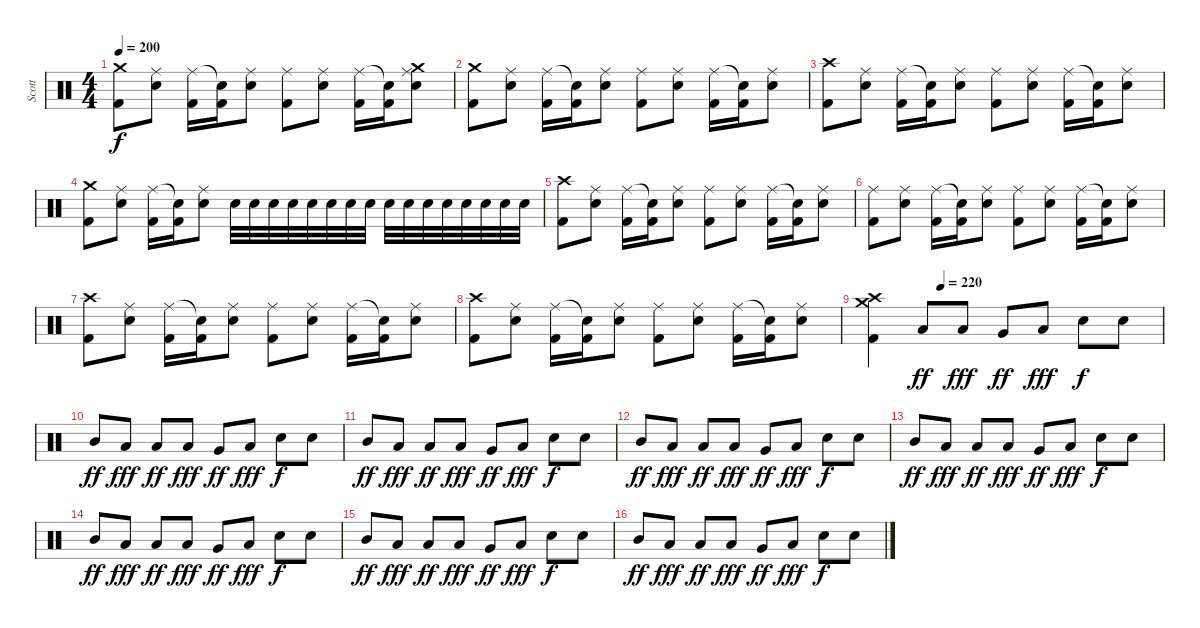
\track ("Scott" "Scott") {instrument percussion}
\staff {score}
\articulation defaults
\ts (4 4)
\tempo 200
\clef neutral
\ks c
("Crash medium (hit)" "Kick (hit) 2").8{dy f} ("Ride (middle)" "Snare (hit) 2").8 ("Ride (middle)" "Kick (hit) 2").16 ("Snare (hit)"{t} "Kick (hit) 2").16 ("Ride (middle)" "Snare (hit) 2").8 ("Ride (middle)" "Kick (hit) 2").8 ("Ride (middle)" "Snare (hit) 2").8 ("Ride (middle)" "Kick (hit) 2").16 ("Snare (hit)"{t} "Kick (hit) 2").16 ("Crash medium (hit)" "Ride (middle)" "Snare (hit) 2").8 |
("Crash medium (hit)" "Kick (hit) 2").8 ("Ride (middle)" "Snare (hit) 2").8 ("Ride (middle)" "Kick (hit) 2").16 ("Snare (hit)"{t} "Kick (hit) 2").16 ("Ride (middle)" "Snare (hit) 2").8 ("Ride (middle)" "Kick (hit) 2").8 ("Ride (middle)" "Snare (hit) 2").8 ("Ride (middle)" "Kick (hit) 2").16 ("Snare (hit)"{t} "Kick (hit) 2").16 ("Ride (middle)" "Snare (hit) 2").8 |
("Crash high (hit)" "Kick (hit) 2").8 ("Ride (middle)" "Snare (hit) 2").8 ("Ride (middle)" "Kick (hit) 2").16 ("Snare (hit)"{t} "Kick (hit) 2").16 ("Ride (middle)" "Snare (hit) 2").8 ("Ride (middle)" "Kick (hit) 2").8 ("Ride (middle)" "Snare (hit) 2").8 ("Ride (middle)" "Kick (hit) 2").16 ("Snare (hit)"{t} "Kick (hit) 2").16 ("Ride (middle)" "Snare (hit) 2").8 |
("Crash medium (hit)" "Kick (hit) 2").8 ("Ride (middle)" "Snare (hit) 2").8 ("Ride (middle)" "Kick (hit) 2").16 ("Snare (hit)"{t} "Kick (hit) 2").16 ("Ride (middle)" "Snare (hit) 2").8 "Snare (hit) 2".32 "Snare (hit) 2".32 "Snare (hit) 2".32 "Snare (hit) 2".32 "Snare (hit) 2".32 "Snare (hit) 2".32 "Snare (hit) 2".32 "Snare (hit) 2".32 "Snare (hit) 2".32 "Snare (hit) 2".32 "Snare (hit) 2".32 "Snare (hit) 2".32 "Snare (hit) 2".32 "Snare (hit) 2".32 "Snare (hit) 2".32 "Snare (hit) 2".32 |
("Crash high (hit)" "Kick (hit) 2").8 ("Ride (middle)" "Snare (hit) 2").8 ("Ride (middle)" "Kick (hit) 2").16 ("Snare (hit)"{t} "Kick (hit) 2").16 ("Ride (middle)" "Snare (hit) 2").8 ("Ride (middle)" "Kick (hit) 2").8 ("Ride (middle)" "Snare (hit) 2").8 ("Ride (middle)" "Kick (hit) 2").16 ("Snare (hit)"{t} "Kick (hit) 2").16 ("Ride (middle)" "Snare (hit) 2").8 |
("Ride (middle)" "Kick (hit) 2").8 ("Ride (middle)" "Snare (hit) 2").8 ("Ride (middle)" "Kick (hit) 2").16 ("Snare (hit)"{t} "Kick (hit) 2").16 ("Ride (middle)" "Snare (hit) 2").8 ("Ride (middle)" "Kick (hit) 2").8 ("Ride (middle)" "Snare (hit) 2").8 ("Ride (middle)" "Kick (hit) 2").16 ("Snare (hit)"{t} "Kick (hit) 2").16 ("Ride (middle)" "Snare (hit) 2").8 |
("Crash high (hit)" "Kick (hit) 2").8 ("Ride (middle)" "Snare (hit) 2").8 ("Ride (middle)" "Kick (hit) 2").16 ("Snare (hit)"{t} "Kick (hit) 2").16 ("Ride (middle)" "Snare (hit) 2").8 ("Ride (middle)" "Kick (hit) 2").8 ("Ride (middle)" "Snare (hit) 2").8 ("Ride (middle)" "Kick (hit) 2").16 ("Snare (hit)"{t} "Kick (hit) 2").16 ("Ride (middle)" "Snare (hit) 2").8 |
("Crash high (hit)" "Kick (hit) 2").8 ("Ride (middle)" "Snare (hit) 2").8 ("Ride (middle)" "Kick (hit) 2").16 ("Snare (hit)"{t} "Kick (hit) 2").16 ("Ride (middle)" "Snare (hit) 2").8 ("Ride (middle)" "Kick (hit) 2").8 ("Ride (middle)" "Snare (hit) 2").8 ("Ride (middle)" "Kick (hit) 2").16 ("Snare (hit)"{t} "Kick (hit) 2").16 ("Ride (middle)" "Snare (hit) 2").8 |
\tempo (220 0.25)
("Crash medium (hit)" "Crash high (hit)" "Kick (hit) 2").4 "Low Tom (hit)".8{dy ff} "Low Floor Tom (hit)".8{dy fff} "Very Low Tom (hit)".8{dy ff} "Low Floor Tom (hit)".8{dy fff} "Snare (hit) 2".8{dy f} "Snare (hit) 2".8 |
"Mid Tom (hit)".8{dy ff} "Low Floor Tom (hit)".8{dy fff} "Low Tom (hit)".8{dy ff} "Low Floor Tom (hit)".8{dy fff} "Very Low Tom (hit)".8{dy ff} "Low Floor Tom (hit)".8{dy fff} "Snare (hit) 2".8{dy f} "Snare (hit) 2".8 |
"Mid Tom (hit)".8{dy ff} "Low Floor Tom (hit)".8{dy fff} "Low Tom (hit)".8{dy ff} "Low Floor Tom (hit)".8{dy fff} "Very Low Tom (hit)".8{dy ff} "Low Floor Tom (hit)".8{dy fff} "Snare (hit) 2".8{dy f} "Snare (hit) 2".8 |
"Mid Tom (hit)".8{dy ff} "Low Floor Tom (hit)".8{dy fff} "Low Tom (hit)".8{dy ff} "Low Floor Tom (hit)".8{dy fff} "Very Low Tom (hit)".8{dy ff} "Low Floor Tom (hit)".8{dy fff} "Snare (hit) 2".8{dy f} "Snare (hit) 2".8 |
"Mid Tom (hit)".8{dy ff} "Low Floor Tom (hit)".8{dy fff} "Low Tom (hit)".8{dy ff} "Low Floor Tom (hit)".8{dy fff} "Very Low Tom (hit)".8{dy ff} "Low Floor Tom (hit)".8{dy fff} "Snare (hit) 2".8{dy f} "Snare (hit) 2".8 |
"Mid Tom (hit)".8{dy ff} "Low Floor Tom (hit)".8{dy fff} "Low Tom (hit)".8{dy ff} "Low Floor Tom (hit)".8{dy fff} "Very Low Tom (hit)".8{dy ff} "Low Floor Tom (hit)".8{dy fff} "Snare (hit) 2".8{dy f} "Snare (hit) 2".8 |
"Mid Tom (hit)".8{dy ff} "Low Floor Tom (hit)".8{dy fff} "Low Tom (hit)".8{dy ff} "Low Floor Tom (hit)".8{dy fff} "Very Low Tom (hit)".8{dy ff} "Low Floor Tom (hit)".8{dy fff} "Snare (hit) 2".8{dy f} "Snare (hit) 2".8 |
"Mid Tom (hit)".8{dy ff} "Low Floor Tom (hit)".8{dy fff} "Low Tom (hit)".8{dy ff} "Low Floor Tom (hit)".8{dy fff} "Very Low Tom (hit)".8{dy ff} "Low Floor Tom (hit)".8{dy fff} "Snare (hit) 2".8{dy f} "Snare (hit) 2".8
